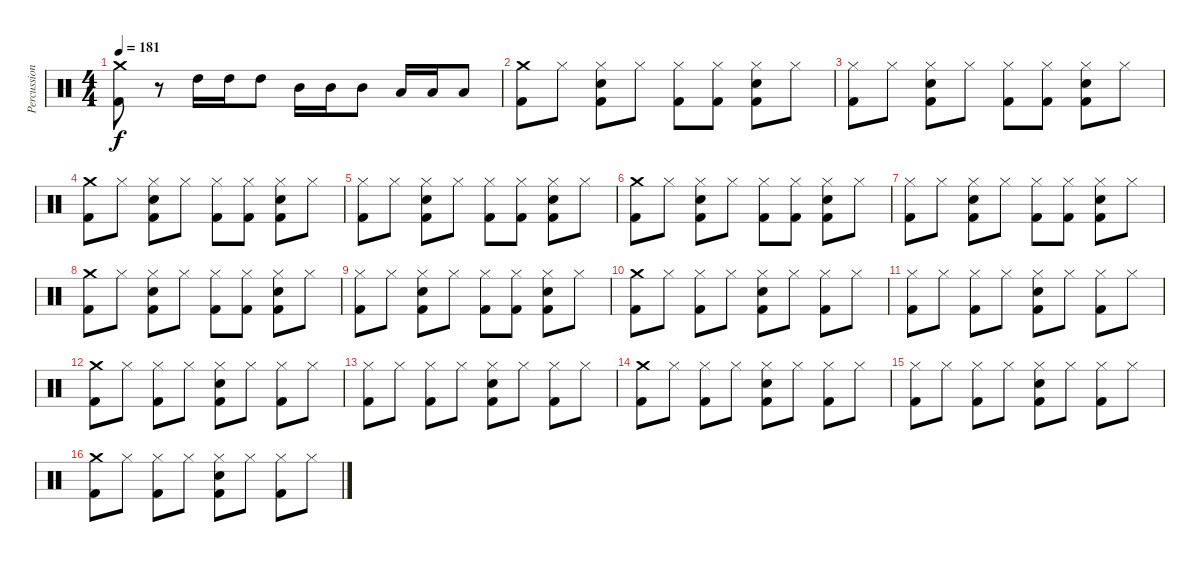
\track ("Percussion" "Percussion") {instrument percussion}
\staff {score}
\articulation defaults
\ts (4 4)
\tempo 181
\clef neutral
\ks c
("Crash medium (hit)" "Kick (hit) 2").8{dy f} r.8 "High Tom (hit)".16 "High Tom (hit)".16 "High Tom (hit)".8 "Mid Tom (hit)".16 "Mid Tom (hit)".16 "Mid Tom (hit)".8 "Low Tom (hit)".16 "Low Tom (hit)".16 "Low Tom (hit)".8 |
("Crash medium (hit)" "Kick (hit) 2").8 "Hi-Hat (closed)".8 ("Hi-Hat (closed)" "Electric Snare (hit)" "Kick (hit) 2").8 "Hi-Hat (closed)".8 ("Hi-Hat (closed)" "Kick (hit) 2").8 ("Hi-Hat (closed)" "Kick (hit) 2").8 ("Hi-Hat (closed)" "Electric Snare (hit)" "Kick (hit) 2").8 "Hi-Hat (closed)".8 |
("Hi-Hat (closed)" "Kick (hit) 2").8 "Hi-Hat (closed)".8 ("Hi-Hat (closed)" "Electric Snare (hit)" "Kick (hit) 2").8 "Hi-Hat (closed)".8 ("Hi-Hat (closed)" "Kick (hit) 2").8 ("Hi-Hat (closed)" "Kick (hit) 2").8 ("Hi-Hat (closed)" "Electric Snare (hit)" "Kick (hit) 2").8 "Hi-Hat (closed)".8 |
("Crash medium (hit)" "Kick (hit) 2").8 "Hi-Hat (closed)".8 ("Hi-Hat (closed)" "Electric Snare (hit)" "Kick (hit) 2").8 "Hi-Hat (closed)".8 ("Hi-Hat (closed)" "Kick (hit) 2").8 ("Hi-Hat (closed)" "Kick (hit) 2").8 ("Hi-Hat (closed)" "Electric Snare (hit)" "Kick (hit) 2").8 "Hi-Hat (closed)".8 |
("Hi-Hat (closed)" "Kick (hit) 2").8 "Hi-Hat (closed)".8 ("Hi-Hat (closed)" "Electric Snare (hit)" "Kick (hit) 2").8 "Hi-Hat (closed)".8 ("Hi-Hat (closed)" "Kick (hit) 2").8 ("Hi-Hat (closed)" "Kick (hit) 2").8 ("Hi-Hat (closed)" "Electric Snare (hit)" "Kick (hit) 2").8 "Hi-Hat (closed)".8 |
("Crash medium (hit)" "Kick (hit) 2").8 "Hi-Hat (closed)".8 ("Hi-Hat (closed)" "Electric Snare (hit)" "Kick (hit) 2").8 "Hi-Hat (closed)".8 ("Hi-Hat (closed)" "Kick (hit) 2").8 ("Hi-Hat (closed)" "Kick (hit) 2").8 ("Hi-Hat (closed)" "Electric Snare (hit)" "Kick (hit) 2").8 "Hi-Hat (closed)".8 |
("Hi-Hat (closed)" "Kick (hit) 2").8 "Hi-Hat (closed)".8 ("Hi-Hat (closed)" "Electric Snare (hit)" "Kick (hit) 2").8 "Hi-Hat (closed)".8 ("Hi-Hat (closed)" "Kick (hit) 2").8 ("Hi-Hat (closed)" "Kick (hit) 2").8 ("Hi-Hat (closed)" "Electric Snare (hit)" "Kick (hit) 2").8 "Hi-Hat (closed)".8 |
("Crash medium (hit)" "Kick (hit) 2").8 "Hi-Hat (closed)".8 ("Hi-Hat (closed)" "Electric Snare (hit)" "Kick (hit) 2").8 "Hi-Hat (closed)".8 ("Hi-Hat (closed)" "Kick (hit) 2").8 ("Hi-Hat (closed)" "Kick (hit) 2").8 ("Hi-Hat (closed)" "Electric Snare (hit)" "Kick (hit) 2").8 "Hi-Hat (closed)".8 |
("Hi-Hat (closed)" "Kick (hit) 2").8 "Hi-Hat (closed)".8 ("Hi-Hat (closed)" "Electric Snare (hit)" "Kick (hit) 2").8 "Hi-Hat (closed)".8 ("Hi-Hat (closed)" "Kick (hit) 2").8 ("Hi-Hat (closed)" "Kick (hit) 2").8 ("Hi-Hat (closed)" "Electric Snare (hit)" "Kick (hit) 2").8 "Hi-Hat (closed)".8 |
("Crash medium (hit)" "Kick (hit) 2").8 "Hi-Hat (closed)".8 ("Hi-Hat (closed)" "Kick (hit) 2").8 "Hi-Hat (closed)".8 ("Hi-Hat (closed)" "Electric Snare (hit)" "Kick (hit) 2").8 "Hi-Hat (closed)".8 ("Hi-Hat (closed)" "Kick (hit) 2").8 "Hi-Hat (closed)".8 |
("Hi-Hat (closed)" "Kick (hit) 2").8 "Hi-Hat (closed)".8 ("Hi-Hat (closed)" "Kick (hit) 2").8 "Hi-Hat (closed)".8 ("Hi-Hat (closed)" "Electric Snare (hit)" "Kick (hit) 2").8 "Hi-Hat (closed)".8 ("Hi-Hat (closed)" "Kick (hit) 2").8 "Hi-Hat (closed)".8 |
("Crash medium (hit)" "Kick (hit) 2").8 "Hi-Hat (closed)".8 ("Hi-Hat (closed)" "Kick (hit) 2").8 "Hi-Hat (closed)".8 ("Hi-Hat (closed)" "Electric Snare (hit)" "Kick (hit) 2").8 "Hi-Hat (closed)".8 ("Hi-Hat (closed)" "Kick (hit) 2").8 "Hi-Hat (closed)".8 |
("Hi-Hat (closed)" "Kick (hit) 2").8 "Hi-Hat (closed)".8 ("Hi-Hat (closed)" "Kick (hit) 2").8 "Hi-Hat (closed)".8 ("Hi-Hat (closed)" "Electric Snare (hit)" "Kick (hit) 2").8 "Hi-Hat (closed)".8 ("Hi-Hat (closed)" "Kick (hit) 2").8 "Hi-Hat (closed)".8 |
("Crash medium (hit)" "Kick (hit) 2").8 "Hi-Hat (closed)".8 ("Hi-Hat (closed)" "Kick (hit) 2").8 "Hi-Hat (closed)".8 ("Hi-Hat (closed)" "Electric Snare (hit)" "Kick (hit) 2").8 "Hi-Hat (closed)".8 ("Hi-Hat (closed)" "Kick (hit) 2").8 "Hi-Hat (closed)".8 |
("Hi-Hat (closed)" "Kick (hit) 2").8 "Hi-Hat (closed)".8 ("Hi-Hat (closed)" "Kick (hit) 2").8 "Hi-Hat (closed)".8 ("Hi-Hat (closed)" "Electric Snare (hit)" "Kick (hit) 2").8 "Hi-Hat (closed)".8 ("Hi-Hat (closed)" "Kick (hit) 2").8 "Hi-Hat (closed)".8 |
("Crash medium (hit)" "Kick (hit) 2").8 "Hi-Hat (closed)".8 ("Hi-Hat (closed)" "Kick (hit) 2").8 "Hi-Hat (closed)".8 ("Hi-Hat (closed)" "Electric Snare (hit)" "Kick (hit) 2").8 "Hi-Hat (closed)".8 ("Hi-Hat (closed)" "Kick (hit) 2").8 "Hi-Hat (closed)".8
